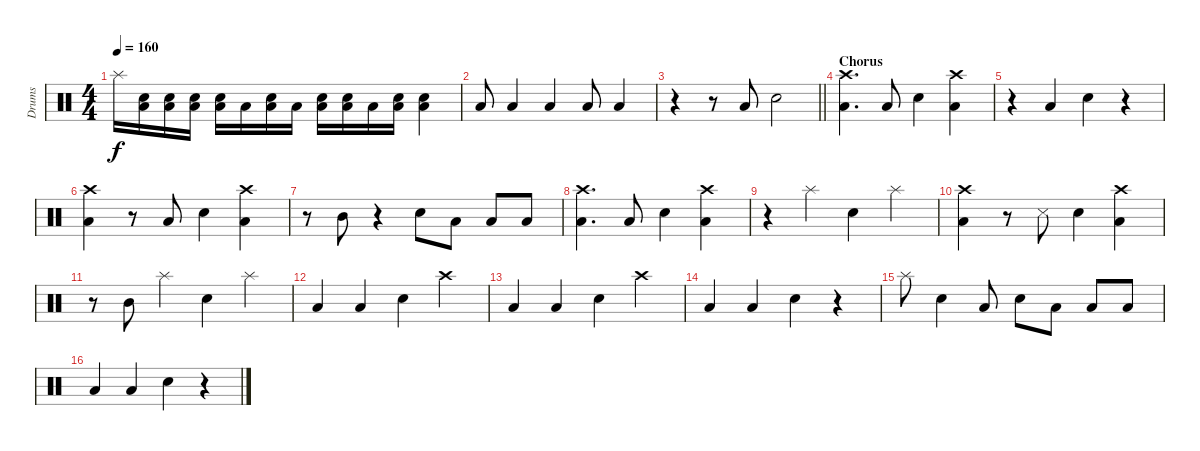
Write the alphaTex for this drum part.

\track ("Drums" "Drums") {instrument percussion}
\staff {score}
\articulation defaults
\ts (4 4)
\tempo 160
\clef neutral
\ks c "Splash (hit)".16{dy f}
("Low Floor Tom (hit)" "Snare (hit) 2").16 ("Low Floor Tom (hit)" "Snare (hit) 2").16 ("Low Floor Tom (hit)" "Snare (hit) 2").16 ("Low Floor Tom (hit)" "Snare (hit) 2").16 "Low Floor Tom (hit)".16 ("Low Floor Tom (hit)" "Snare (hit) 2").16 "Low Floor Tom (hit)".16 ("Low Floor Tom (hit)" "Snare (hit) 2").16 ("Low Floor Tom (hit)" "Snare (hit) 2").16 "Low Floor Tom (hit)".16 ("Low Floor Tom (hit)" "Snare (hit) 2").16 ("Low Floor Tom (hit)" "Snare (hit) 2").4 |
"Low Floor Tom (hit)".8 "Low Floor Tom (hit)".4 "Low Floor Tom (hit)".4 "Low Floor Tom (hit)".8 "Low Floor Tom (hit)".4 |
\barLineRight lightlight
r.4 r.8 "Low Floor Tom (hit)".8 "Snare (hit) 2".2 |
\section ("" "Chorus")
("Low Floor Tom (hit)" "Crash high (hit)").4{d} "Low Floor Tom (hit)".8 "Snare (hit) 2".4 ("Low Floor Tom (hit)" "Crash high (hit)").4 |
r.4 "Low Floor Tom (hit)".4 "Snare (hit) 2".4 r.4 |
("Low Floor Tom (hit)" "Crash high (hit)").4 r.8 "Low Floor Tom (hit)".8 "Snare (hit) 2".4 ("Low Floor Tom (hit)" "Crash high (hit)").4 |
r.8 "Mid Tom (hit)".8 r.4 "Snare (hit) 2".8 "Low Floor Tom (hit)".8 "Low Floor Tom (hit)".8 "Low Floor Tom (hit)".8 |
("Low Floor Tom (hit)" "Crash high (hit)").4{d} "Low Floor Tom (hit)".8 "Snare (hit) 2".4 ("Low Floor Tom (hit)" "Crash high (hit)").4 |
r.4 "Splash (hit)".4 "Snare (hit) 2".4 "Splash (hit)".4 |
("Low Floor Tom (hit)" "Crash high (hit)").4 r.8 "Snare (side stick) 3".8 "Snare (hit) 2".4 ("Low Floor Tom (hit)" "Crash high (hit)").4 |
r.8 "Mid Tom (hit)".8 "Splash (hit)".4 "Snare (hit) 2".4 "Splash (hit)".4 |
"Low Floor Tom (hit)".4 "Low Floor Tom (hit)".4 "Snare (hit) 2".4 "Crash high (hit)".4 |
"Low Floor Tom (hit)".4 "Low Floor Tom (hit)".4 "Snare (hit) 2".4 "Crash high (hit)".4 |
"Low Floor Tom (hit)".4 "Low Floor Tom (hit)".4 "Snare (hit) 2".4 r.4 |
"Splash (hit)".8 "Snare (hit) 2".4 "Low Floor Tom (hit)".8 "Snare (hit) 2".8 "Low Floor Tom (hit)".8 "Low Floor Tom (hit)".8 "Low Floor Tom (hit)".8 |
"Low Floor Tom (hit)".4 "Low Floor Tom (hit)".4 "Snare (hit) 2".4 r.4
